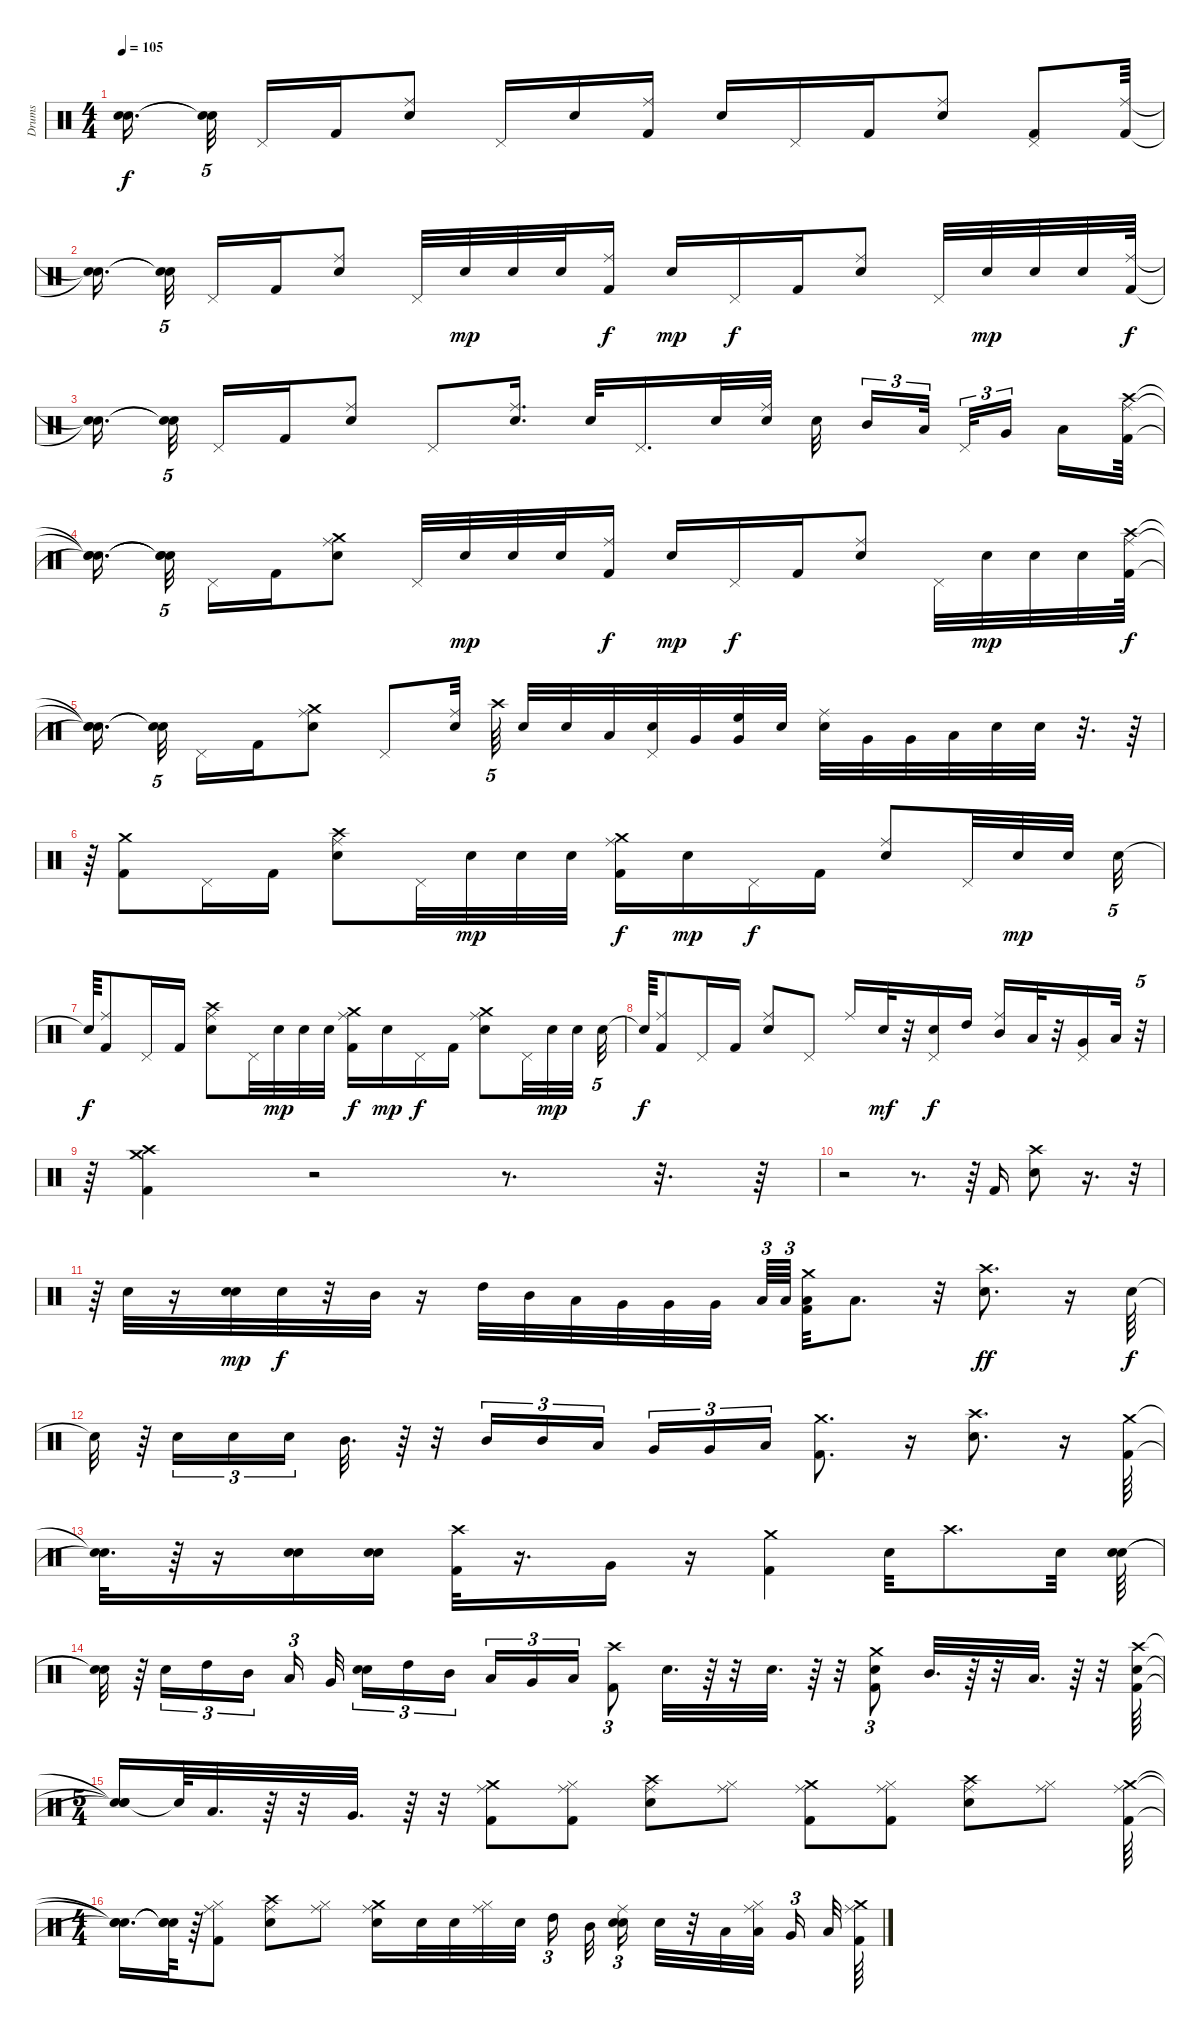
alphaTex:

\track ("Drums" "Drums") {instrument percussion}
\staff {score}
\articulation defaults
\ts (4 4)
\tempo 105
\clef neutral
\ks c
("Snare (hit)"{t} "Snare (hit)"{t}).16{d dy f} ("Snare (hit)"{t} "Snare (hit)"{t}).32{tu (5 4)} "Pedal Hi-Hat (hit)".16 "Kick (hit) 2".16 ("Electric Snare (hit)" "Ride (middle)").8 "Pedal Hi-Hat (hit)".16 "Electric Snare (hit)".16 ("Kick (hit) 2" "Ride (middle)").16 "Electric Snare (hit)".16 "Pedal Hi-Hat (hit)".16 "Kick (hit) 2".16 ("Electric Snare (hit)" "Ride (middle)").8 ("Kick (hit) 2" "Pedal Hi-Hat (hit)").8 ("Kick (hit) 2" "Ride (middle)").64 |
("Snare (hit)"{t} "Snare (hit)"{t}).16{d} ("Snare (hit)"{t} "Snare (hit)"{t}).32{tu (5 4)} "Pedal Hi-Hat (hit)".16 "Kick (hit) 2".16 ("Electric Snare (hit)" "Ride (middle)").8 "Pedal Hi-Hat (hit)".32 "Electric Snare (hit)".32{dy mp} "Electric Snare (hit)".32 "Electric Snare (hit)".32 ("Kick (hit) 2" "Ride (middle)").16{dy f} "Electric Snare (hit)".16{dy mp} "Pedal Hi-Hat (hit)".16{dy f} "Kick (hit) 2".16 ("Electric Snare (hit)" "Ride (middle)").8 "Pedal Hi-Hat (hit)".32 "Electric Snare (hit)".32{dy mp} "Electric Snare (hit)".32 "Electric Snare (hit)".32 ("Kick (hit) 2" "Ride (middle)").64{dy f} |
("Snare (hit)"{t} "Snare (hit)"{t}).16{d} ("Snare (hit)"{t} "Snare (hit)"{t}).32{tu (5 4)} "Pedal Hi-Hat (hit)".16 "Kick (hit) 2".16 ("Electric Snare (hit)" "Ride (middle)").8 "Pedal Hi-Hat (hit)".8 ("Electric Snare (hit)" "Ride (middle)").16{d} "Electric Snare (hit)".32 "Pedal Hi-Hat (hit)".16{d} "Electric Snare (hit)".32 ("Electric Snare (hit)" "Ride (middle)").32 "Electric Snare (hit)".32 "Mid Tom (hit)".16{tu (3 2)} "Low Tom (hit)".32{tu (3 2)} "Pedal Hi-Hat (hit)".32{tu (3 2)} "Very Low Tom (hit)".16{tu (3 2)} "Low Floor Tom (hit)".16 ("Crash high (hit)" "Kick (hit) 2" "Ride (middle)").64 |
("Snare (hit)"{t} "Snare (hit)"{t} "Snare (hit)"{t}).16{d} ("Snare (hit)"{t} "Snare (hit)"{t} "Snare (hit)"{t}).32{tu (5 4)} "Pedal Hi-Hat (hit)".16 "Kick (hit) 2".16 ("Electric Snare (hit)" "Ride (middle)" "Crash medium (hit)").8 "Pedal Hi-Hat (hit)".32 "Electric Snare (hit)".32{dy mp} "Electric Snare (hit)".32 "Electric Snare (hit)".32 ("Kick (hit) 2" "Ride (middle)").16{dy f} "Electric Snare (hit)".16{dy mp} "Pedal Hi-Hat (hit)".16{dy f} "Kick (hit) 2".16 ("Electric Snare (hit)" "Ride (middle)").8 "Pedal Hi-Hat (hit)".32 "Electric Snare (hit)".32{dy mp} "Electric Snare (hit)".32 "Electric Snare (hit)".32 ("Crash high (hit)" "Kick (hit) 2" "Ride (middle)").64{dy f} |
("Snare (hit)"{t} "Snare (hit)"{t} "Snare (hit)"{t}).16{d} ("Snare (hit)"{t} "Snare (hit)"{t}).32{tu (5 4)} "Pedal Hi-Hat (hit)".16 "Kick (hit) 2".16 ("Crash medium (hit)" "Electric Snare (hit)" "Ride (middle)").8 "Pedal Hi-Hat (hit)".8 ("Ride (middle)" "Electric Snare (hit)").32 "Crash high (hit)".64{tu (5 4)} "Electric Snare (hit)".32 "Electric Snare (hit)".32 "Low Tom (hit)".32 ("Pedal Hi-Hat (hit)" "Electric Snare (hit)").32 "Very Low Tom (hit)".32 ("High Floor Tom (hit)" "Very Low Tom (hit)").32 "Electric Snare (hit)".32 ("Ride (middle)" "Electric Snare (hit)").32 "Very Low Tom (hit)".32 "Very Low Tom (hit)".32 "Low Floor Tom (hit)".32 "Electric Snare (hit)".32 "Electric Snare (hit)".32 r.32{d} r.64 |
r.64 ("Crash medium (hit)" "Kick (hit) 2").8 "Pedal Hi-Hat (hit)".16 "Kick (hit) 2".16 ("Crash high (hit)" "Electric Snare (hit)" "Ride (middle)").8 "Pedal Hi-Hat (hit)".32 "Electric Snare (hit)".32{dy mp} "Electric Snare (hit)".32 "Electric Snare (hit)".32 ("Kick (hit) 2" "Ride (middle)" "Crash medium (hit)").16{dy f} "Electric Snare (hit)".16{dy mp} "Pedal Hi-Hat (hit)".16{dy f} "Kick (hit) 2".16 ("Electric Snare (hit)" "Ride (middle)").8 "Pedal Hi-Hat (hit)".32 "Electric Snare (hit)".32{dy mp} "Electric Snare (hit)".32 "Electric Snare (hit)".32{tu (5 4)} |
"Snare (hit)"{t}.64{dy f} ("Kick (hit) 2" "Ride (middle)").8 "Pedal Hi-Hat (hit)".16 "Kick (hit) 2".16 ("Crash high (hit)" "Electric Snare (hit)" "Ride (middle)").8 "Pedal Hi-Hat (hit)".32 "Electric Snare (hit)".32{dy mp} "Electric Snare (hit)".32 "Electric Snare (hit)".32 ("Crash medium (hit)" "Kick (hit) 2" "Ride (middle)").16{dy f} "Electric Snare (hit)".16{dy mp} "Pedal Hi-Hat (hit)".16{dy f} "Kick (hit) 2".16 ("Electric Snare (hit)" "Ride (middle)" "Crash medium (hit)").8 "Pedal Hi-Hat (hit)".32 "Electric Snare (hit)".32{dy mp} "Electric Snare (hit)".32 "Electric Snare (hit)".32{tu (5 4)} |
"Snare (hit)"{t}.64{dy f} ("Kick (hit) 2" "Ride (middle)").8 "Pedal Hi-Hat (hit)".16 "Kick (hit) 2".16 ("Electric Snare (hit)" "Ride (middle)").8 "Pedal Hi-Hat (hit)".8 "Ride (middle)".16 "Electric Snare (hit)".32{dy mf} r.32 ("Electric Snare (hit)" "Pedal Hi-Hat (hit)").16{dy f} "High Tom (hit)".16 ("Ride (middle)" "Mid Tom (hit)").16 "Low Tom (hit)".32 r.32 ("Pedal Hi-Hat (hit)" "Very Low Tom (hit)").16 "Low Floor Tom (hit)".32 r.32{tu (5 4)} |
r.64 ("Kick (hit) 2" "Crash high (hit)" "Crash medium (hit)").4 r.2 r.8{d} r.32{d} r.64 |
r.2 r.8{d} r.64 "Kick (hit) 2".16 ("Electric Snare (hit)" "Crash high (hit)").8 r.16{d} r.32{tu (5 4)} |
r.64 "Electric Snare (hit)".32 r.16 ("Electric Snare (hit)" "Electric Snare (hit)").32{dy mp} "Electric Snare (hit)".32{dy f} r.32 "Mid Tom (hit)".32 r.16 "High Tom (hit)".32 "Mid Tom (hit)".32 "Low Tom (hit)".32 "Very Low Tom (hit)".32 "Very Low Tom (hit)".32 "Very Low Tom (hit)".32 "Low Floor Tom (hit)".64{tu (3 2)} "Low Floor Tom (hit)".64{tu (3 2)} ("Crash medium (hit)" "Low Floor Tom (hit)" "Kick (hit) 2").32 "Low Floor Tom (hit)".8{d} r.32 ("Electric Snare (hit)" "Crash high (hit)").8{d dy ff} r.16 "Electric Snare (hit)".64{dy f} |
"Snare (hit)"{t}.32 r.64 "Electric Snare (hit)".16{tu (3 2)} "Electric Snare (hit)".16{tu (3 2)} "Electric Snare (hit)".16{tu (3 2)} "Mid Tom (hit)".32{d} r.64 r.32 "Mid Tom (hit)".16{tu (3 2)} "Mid Tom (hit)".16{tu (3 2)} "Low Tom (hit)".16{tu (3 2)} "Very Low Tom (hit)".16{tu (3 2)} "Very Low Tom (hit)".16{tu (3 2)} "Low Floor Tom (hit)".16{tu (3 2)} ("Crash medium (hit)" "Kick (hit) 2").8{d} r.16 ("Crash high (hit)" "Electric Snare (hit)").8{d} r.16 ("Crash medium (hit)" "Kick (hit) 2").64 |
("Snare (hit)"{t} "Snare (hit)"{t}).32{d} r.64 r.16 ("Electric Snare (hit)" "Electric Snare (hit)").16 ("Electric Snare (hit)" "Electric Snare (hit)").16 ("Kick (hit) 2" "Crash high (hit)").32 r.16{d} "Very Low Tom (hit)".16 r.16 ("Kick (hit) 2" "Crash medium (hit)").4 "Electric Snare (hit)".32 "Crash high (hit)".8{d} "Electric Snare (hit)".32 ("Electric Snare (hit)" "Electric Snare (hit)").64 |
("Snare (hit)"{t} "Snare (hit)"{t}).32 r.64 "Electric Snare (hit)".16{tu (3 2)} "High Tom (hit)".16{tu (3 2)} "Mid Tom (hit)".16{tu (3 2)} "Low Tom (hit)".16{tu (3 2)} "Very Low Tom (hit)".32 ("Electric Snare (hit)" "Electric Snare (hit)").16{tu (3 2)} "High Tom (hit)".16{tu (3 2)} "Mid Tom (hit)".16{tu (3 2)} "Low Tom (hit)".16{tu (3 2)} "Very Low Tom (hit)".16{tu (3 2)} "Low Floor Tom (hit)".16{tu (3 2)} ("Kick (hit) 2" "Crash high (hit)").8{tu (3 2)} "Electric Snare (hit)".32{d} r.64 r.32 "Electric Snare (hit)".32{d} r.64 r.32 ("Electric Snare (hit)" "Kick (hit) 2" "Crash medium (hit)").8{tu (3 2)} "Mid Tom (hit)".32{d} r.64 r.32 "Low Tom (hit)".32{d} r.64 r.32 ("Electric Snare (hit)" "Kick (hit) 2" "Crash high (hit)").64 |
\ts (5 4)
("Snare (hit)"{t} "Snare (hit)"{t} "Snare (hit)"{t}).16 "Snare (hit)"{t}.64 "Low Tom (hit)".32{d} r.64 r.32 "Very Low Tom (hit)".32{d} r.64 r.32 ("Ride (middle)" "Crash medium (hit)" "Kick (hit) 2").8 ("Ride (middle)" "Hi-Hat (closed)" "Kick (hit) 2").8 ("Ride (middle)" "Crash high (hit)" "Electric Snare (hit)").8 ("Hi-Hat (closed)" "Ride (middle)").8 ("Ride (middle)" "Kick (hit) 2" "Crash medium (hit)").8 ("Hi-Hat (closed)" "Ride (middle)" "Kick (hit) 2").8 ("Ride (middle)" "Electric Snare (hit)" "Crash high (hit)").8 ("Hi-Hat (closed)" "Ride (middle)").8 ("Ride (middle)" "Crash medium (hit)" "Kick (hit) 2").64 |
\ts (4 4)
("Snare (hit)"{t} "Snare (hit)"{t} "Snare (hit)"{t}).16{d} ("Snare (hit)"{t} "Snare (hit)"{t} "Snare (hit)"{t}).64 r.64 ("Ride (middle)" "Hi-Hat (closed)" "Kick (hit) 2").8 ("Ride (middle)" "Crash high (hit)" "Electric Snare (hit)").8 ("Hi-Hat (closed)" "Ride (middle)").8 ("Ride (middle)" "Crash medium (hit)" "Electric Snare (hit)").16 "Electric Snare (hit)".32 "Electric Snare (hit)".32 ("Hi-Hat (closed)" "Ride (middle)").32 "Electric Snare (hit)".32 "High Tom (hit)".16{tu (3 2)} "Mid Tom (hit)".32 ("Snare (hit) 2" "Ride (middle)" "Electric Snare (hit)").16{tu (3 2)} "Electric Snare (hit)".32 r.32 "Low Tom (hit)".32 ("Hi-Hat (closed)" "Ride (middle)" "Low Tom (hit)").32 "Very Low Tom (hit)".16{tu (3 2)} "Low Floor Tom (hit)".32 ("Ride (middle)" "Crash medium (hit)" "Kick (hit) 2").64
